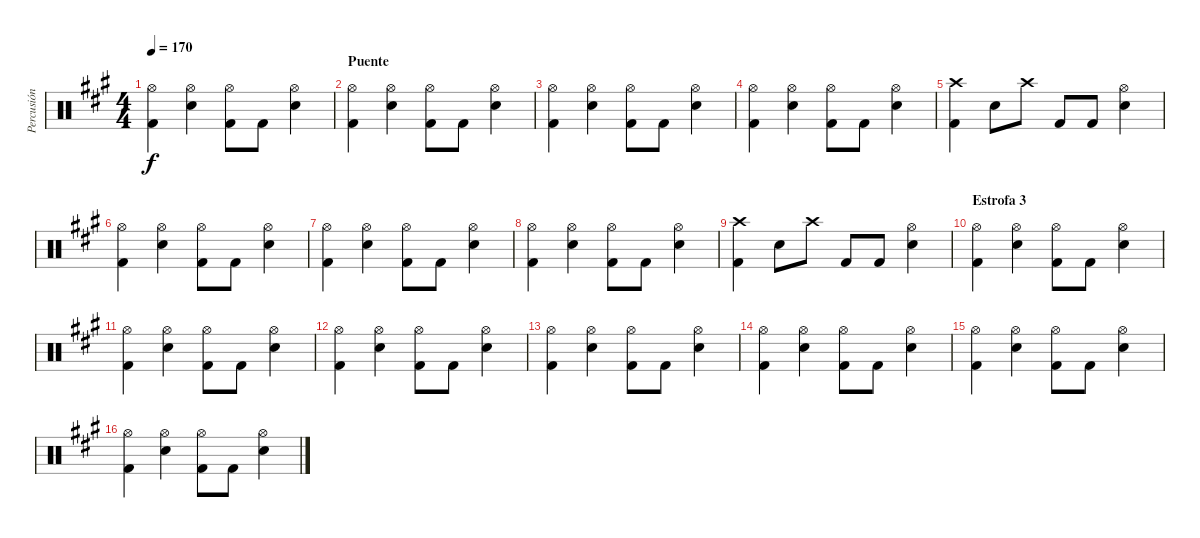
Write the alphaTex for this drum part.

\track ("Percusión" "Percusión") {instrument percussion}
\staff {score}
\articulation defaults
\ts (4 4)
\tempo 170
\clef neutral
\ks a
("Hi-Hat (open)" "Kick (hit) 2").4{dy f} ("Hi-Hat (open)" "Snare (hit) 2").4 ("Hi-Hat (open)" "Kick (hit) 2").8 "Kick (hit) 2".8 ("Hi-Hat (open)" "Snare (hit) 2").4 |
\section ("" "Puente")
("Hi-Hat (open)" "Kick (hit) 2").4 ("Hi-Hat (open)" "Snare (hit) 2").4 ("Hi-Hat (open)" "Kick (hit) 2").8 "Kick (hit) 2".8 ("Hi-Hat (open)" "Snare (hit) 2").4 |
("Hi-Hat (open)" "Kick (hit) 2").4 ("Hi-Hat (open)" "Snare (hit) 2").4 ("Hi-Hat (open)" "Kick (hit) 2").8 "Kick (hit) 2".8 ("Hi-Hat (open)" "Snare (hit) 2").4 |
("Hi-Hat (open)" "Kick (hit) 2").4 ("Hi-Hat (open)" "Snare (hit) 2").4 ("Hi-Hat (open)" "Kick (hit) 2").8 "Kick (hit) 2".8 ("Hi-Hat (open)" "Snare (hit) 2").4 |
("Crash high (hit)" "Kick (hit) 2").4 "Snare (hit) 2".8 "Crash high (hit)".8 "Kick (hit) 2".8 "Kick (hit) 2".8 ("Hi-Hat (open)" "Snare (hit) 2").4 |
("Hi-Hat (open)" "Kick (hit) 2").4 ("Hi-Hat (open)" "Snare (hit) 2").4 ("Hi-Hat (open)" "Kick (hit) 2").8 "Kick (hit) 2".8 ("Hi-Hat (open)" "Snare (hit) 2").4 |
("Hi-Hat (open)" "Kick (hit) 2").4 ("Hi-Hat (open)" "Snare (hit) 2").4 ("Hi-Hat (open)" "Kick (hit) 2").8 "Kick (hit) 2".8 ("Hi-Hat (open)" "Snare (hit) 2").4 |
("Hi-Hat (open)" "Kick (hit) 2").4 ("Hi-Hat (open)" "Snare (hit) 2").4 ("Hi-Hat (open)" "Kick (hit) 2").8 "Kick (hit) 2".8 ("Hi-Hat (open)" "Snare (hit) 2").4 |
("Crash high (hit)" "Kick (hit) 2").4 "Snare (hit) 2".8 "Crash high (hit)".8 "Kick (hit) 2".8 "Kick (hit) 2".8 ("Hi-Hat (open)" "Snare (hit) 2").4 |
\section ("" "Estrofa 3")
("Hi-Hat (open)" "Kick (hit) 2").4 ("Hi-Hat (open)" "Snare (hit) 2").4 ("Hi-Hat (open)" "Kick (hit) 2").8 "Kick (hit) 2".8 ("Hi-Hat (open)" "Snare (hit) 2").4 |
("Hi-Hat (open)" "Kick (hit) 2").4 ("Hi-Hat (open)" "Snare (hit) 2").4 ("Hi-Hat (open)" "Kick (hit) 2").8 "Kick (hit) 2".8 ("Hi-Hat (open)" "Snare (hit) 2").4 |
("Hi-Hat (open)" "Kick (hit) 2").4 ("Hi-Hat (open)" "Snare (hit) 2").4 ("Hi-Hat (open)" "Kick (hit) 2").8 "Kick (hit) 2".8 ("Hi-Hat (open)" "Snare (hit) 2").4 |
("Hi-Hat (open)" "Kick (hit) 2").4 ("Hi-Hat (open)" "Snare (hit) 2").4 ("Hi-Hat (open)" "Kick (hit) 2").8 "Kick (hit) 2".8 ("Hi-Hat (open)" "Snare (hit) 2").4 |
("Hi-Hat (open)" "Kick (hit) 2").4 ("Hi-Hat (open)" "Snare (hit) 2").4 ("Hi-Hat (open)" "Kick (hit) 2").8 "Kick (hit) 2".8 ("Hi-Hat (open)" "Snare (hit) 2").4 |
("Hi-Hat (open)" "Kick (hit) 2").4 ("Hi-Hat (open)" "Snare (hit) 2").4 ("Hi-Hat (open)" "Kick (hit) 2").8 "Kick (hit) 2".8 ("Hi-Hat (open)" "Snare (hit) 2").4 |
("Hi-Hat (open)" "Kick (hit) 2").4 ("Hi-Hat (open)" "Snare (hit) 2").4 ("Hi-Hat (open)" "Kick (hit) 2").8 "Kick (hit) 2".8 ("Hi-Hat (open)" "Snare (hit) 2").4
